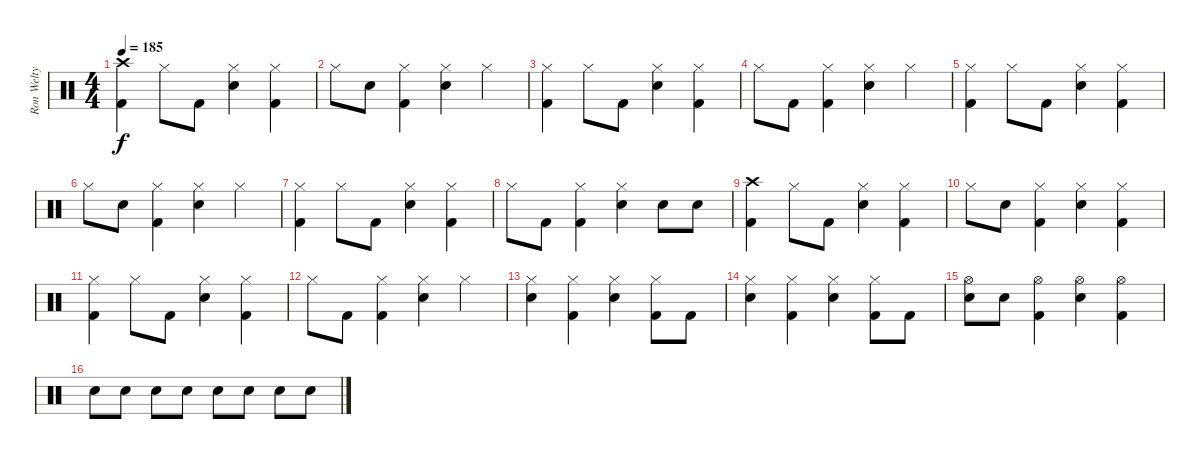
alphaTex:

\track ("Ron Welty" "Ron Welty") {instrument percussion}
\staff {score}
\articulation defaults
\ts (4 4)
\tempo 185
\clef neutral
\ks c
("Crash high (hit)" "Kick (hit) 2").4{dy f} "Hi-Hat (closed)".8 "Kick (hit) 2".8 ("Hi-Hat (closed)" "Electric Snare (hit)").4 ("Hi-Hat (closed)" "Kick (hit) 2").4 |
"Hi-Hat (closed)".8 "Electric Snare (hit)".8 ("Hi-Hat (closed)" "Kick (hit) 2").4 ("Hi-Hat (closed)" "Electric Snare (hit)").4 "Hi-Hat (closed)".4 |
("Hi-Hat (closed)" "Kick (hit) 2").4 "Hi-Hat (closed)".8 "Kick (hit) 2".8 ("Hi-Hat (closed)" "Electric Snare (hit)").4 ("Hi-Hat (closed)" "Kick (hit) 2").4 |
"Hi-Hat (closed)".8 "Kick (hit) 2".8 ("Hi-Hat (closed)" "Kick (hit) 2").4 ("Hi-Hat (closed)" "Electric Snare (hit)").4 "Hi-Hat (closed)".4 |
("Hi-Hat (closed)" "Kick (hit) 2").4 "Hi-Hat (closed)".8 "Kick (hit) 2".8 ("Hi-Hat (closed)" "Electric Snare (hit)").4 ("Hi-Hat (closed)" "Kick (hit) 2").4 |
"Hi-Hat (closed)".8 "Electric Snare (hit)".8 ("Hi-Hat (closed)" "Kick (hit) 2").4 ("Hi-Hat (closed)" "Electric Snare (hit)").4 "Hi-Hat (closed)".4 |
("Hi-Hat (closed)" "Kick (hit) 2").4 "Hi-Hat (closed)".8 "Kick (hit) 2".8 ("Hi-Hat (closed)" "Electric Snare (hit)").4 ("Hi-Hat (closed)" "Kick (hit) 2").4 |
"Hi-Hat (closed)".8 "Kick (hit) 2".8 ("Hi-Hat (closed)" "Kick (hit) 2").4 ("Hi-Hat (closed)" "Electric Snare (hit)").4 "Electric Snare (hit)".8 "Electric Snare (hit)".8 |
("Crash high (hit)" "Kick (hit) 2").4 "Hi-Hat (closed)".8 "Kick (hit) 2".8 ("Hi-Hat (closed)" "Electric Snare (hit)").4 ("Hi-Hat (closed)" "Kick (hit) 2").4 |
"Hi-Hat (closed)".8 "Electric Snare (hit)".8 ("Hi-Hat (closed)" "Kick (hit) 2").4 ("Hi-Hat (closed)" "Electric Snare (hit)").4 ("Hi-Hat (closed)" "Kick (hit) 2").4 |
("Hi-Hat (closed)" "Kick (hit) 2").4 "Hi-Hat (closed)".8 "Kick (hit) 2".8 ("Hi-Hat (closed)" "Electric Snare (hit)").4 ("Hi-Hat (closed)" "Kick (hit) 2").4 |
"Hi-Hat (closed)".8 "Kick (hit) 2".8 ("Hi-Hat (closed)" "Kick (hit) 2").4 ("Hi-Hat (closed)" "Electric Snare (hit)").4 "Hi-Hat (closed)".4 |
("Hi-Hat (closed)" "Electric Snare (hit)").4 ("Hi-Hat (closed)" "Kick (hit) 2").4 ("Hi-Hat (closed)" "Electric Snare (hit)").4 ("Hi-Hat (closed)" "Kick (hit) 2").8 "Kick (hit) 2".8 |
("Hi-Hat (closed)" "Electric Snare (hit)").4 ("Hi-Hat (closed)" "Kick (hit) 2").4 ("Hi-Hat (closed)" "Electric Snare (hit)").4 ("Hi-Hat (closed)" "Kick (hit) 2").8 "Kick (hit) 2".8 |
("Hi-Hat (open)" "Electric Snare (hit)").8 "Electric Snare (hit)".8 ("Hi-Hat (open)" "Kick (hit) 2").4 ("Hi-Hat (open)" "Electric Snare (hit)").4 ("Hi-Hat (open)" "Kick (hit) 2").4 |
"Electric Snare (hit)".8 "Electric Snare (hit)".8 "Electric Snare (hit)".8 "Electric Snare (hit)".8 "Electric Snare (hit)".8 "Electric Snare (hit)".8 "Electric Snare (hit)".8 "Electric Snare (hit)".8
